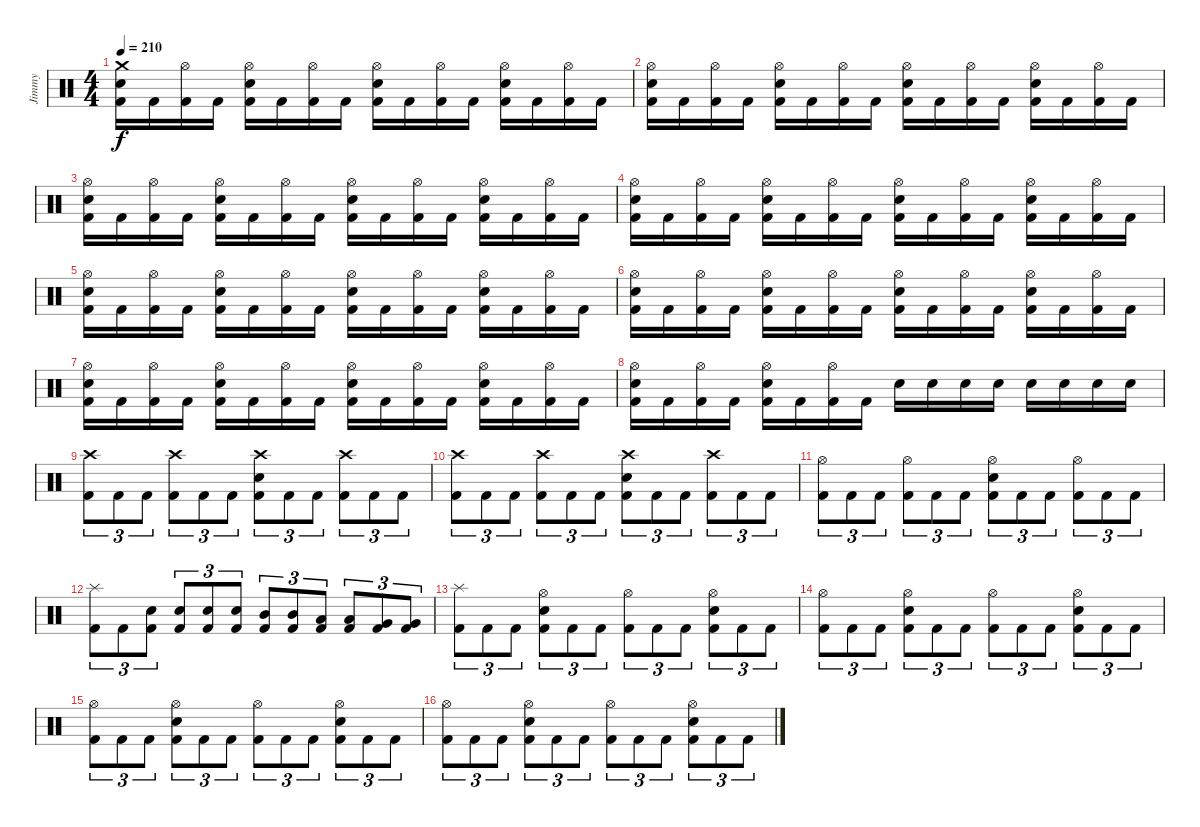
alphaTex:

\track ("Jimmy" "Jimmy") {instrument percussion}
\staff {score}
\articulation defaults
\ts (4 4)
\tempo 210
\clef neutral
\ks c
("Crash medium (hit)" "Electric Snare (hit)" "Kick (hit) 2").16{dy f} "Kick (hit) 2".16 ("Hi-Hat (open)" "Kick (hit) 2").16 "Kick (hit) 2".16 ("Hi-Hat (open)" "Electric Snare (hit)" "Kick (hit) 2").16 "Kick (hit) 2".16 ("Hi-Hat (open)" "Kick (hit) 2").16 "Kick (hit) 2".16 ("Hi-Hat (open)" "Electric Snare (hit)" "Kick (hit) 2").16 "Kick (hit) 2".16 ("Hi-Hat (open)" "Kick (hit) 2").16 "Kick (hit) 2".16 ("Hi-Hat (open)" "Electric Snare (hit)" "Kick (hit) 2").16 "Kick (hit) 2".16 ("Hi-Hat (open)" "Kick (hit) 2").16 "Kick (hit) 2".16 |
("Hi-Hat (open)" "Electric Snare (hit)" "Kick (hit) 2").16 "Kick (hit) 2".16 ("Hi-Hat (open)" "Kick (hit) 2").16 "Kick (hit) 2".16 ("Hi-Hat (open)" "Electric Snare (hit)" "Kick (hit) 2").16 "Kick (hit) 2".16 ("Hi-Hat (open)" "Kick (hit) 2").16 "Kick (hit) 2".16 ("Hi-Hat (open)" "Electric Snare (hit)" "Kick (hit) 2").16 "Kick (hit) 2".16 ("Hi-Hat (open)" "Kick (hit) 2").16 "Kick (hit) 2".16 ("Hi-Hat (open)" "Electric Snare (hit)" "Kick (hit) 2").16 "Kick (hit) 2".16 ("Hi-Hat (open)" "Kick (hit) 2").16 "Kick (hit) 2".16 |
("Hi-Hat (open)" "Electric Snare (hit)" "Kick (hit) 2").16 "Kick (hit) 2".16 ("Hi-Hat (open)" "Kick (hit) 2").16 "Kick (hit) 2".16 ("Hi-Hat (open)" "Electric Snare (hit)" "Kick (hit) 2").16 "Kick (hit) 2".16 ("Hi-Hat (open)" "Kick (hit) 2").16 "Kick (hit) 2".16 ("Hi-Hat (open)" "Electric Snare (hit)" "Kick (hit) 2").16 "Kick (hit) 2".16 ("Hi-Hat (open)" "Kick (hit) 2").16 "Kick (hit) 2".16 ("Hi-Hat (open)" "Electric Snare (hit)" "Kick (hit) 2").16 "Kick (hit) 2".16 ("Hi-Hat (open)" "Kick (hit) 2").16 "Kick (hit) 2".16 |
("Hi-Hat (open)" "Electric Snare (hit)" "Kick (hit) 2").16 "Kick (hit) 2".16 ("Hi-Hat (open)" "Kick (hit) 2").16 "Kick (hit) 2".16 ("Hi-Hat (open)" "Electric Snare (hit)" "Kick (hit) 2").16 "Kick (hit) 2".16 ("Hi-Hat (open)" "Kick (hit) 2").16 "Kick (hit) 2".16 ("Hi-Hat (open)" "Electric Snare (hit)" "Kick (hit) 2").16 "Kick (hit) 2".16 ("Hi-Hat (open)" "Kick (hit) 2").16 "Kick (hit) 2".16 ("Hi-Hat (open)" "Electric Snare (hit)" "Kick (hit) 2").16 "Kick (hit) 2".16 ("Hi-Hat (open)" "Kick (hit) 2").16 "Kick (hit) 2".16 |
("Hi-Hat (open)" "Electric Snare (hit)" "Kick (hit) 2").16 "Kick (hit) 2".16 ("Hi-Hat (open)" "Kick (hit) 2").16 "Kick (hit) 2".16 ("Hi-Hat (open)" "Electric Snare (hit)" "Kick (hit) 2").16 "Kick (hit) 2".16 ("Hi-Hat (open)" "Kick (hit) 2").16 "Kick (hit) 2".16 ("Hi-Hat (open)" "Electric Snare (hit)" "Kick (hit) 2").16 "Kick (hit) 2".16 ("Hi-Hat (open)" "Kick (hit) 2").16 "Kick (hit) 2".16 ("Hi-Hat (open)" "Electric Snare (hit)" "Kick (hit) 2").16 "Kick (hit) 2".16 ("Hi-Hat (open)" "Kick (hit) 2").16 "Kick (hit) 2".16 |
("Hi-Hat (open)" "Electric Snare (hit)" "Kick (hit) 2").16 "Kick (hit) 2".16 ("Hi-Hat (open)" "Kick (hit) 2").16 "Kick (hit) 2".16 ("Hi-Hat (open)" "Electric Snare (hit)" "Kick (hit) 2").16 "Kick (hit) 2".16 ("Hi-Hat (open)" "Kick (hit) 2").16 "Kick (hit) 2".16 ("Hi-Hat (open)" "Electric Snare (hit)" "Kick (hit) 2").16 "Kick (hit) 2".16 ("Hi-Hat (open)" "Kick (hit) 2").16 "Kick (hit) 2".16 ("Hi-Hat (open)" "Electric Snare (hit)" "Kick (hit) 2").16 "Kick (hit) 2".16 ("Hi-Hat (open)" "Kick (hit) 2").16 "Kick (hit) 2".16 |
("Hi-Hat (open)" "Electric Snare (hit)" "Kick (hit) 2").16 "Kick (hit) 2".16 ("Hi-Hat (open)" "Kick (hit) 2").16 "Kick (hit) 2".16 ("Hi-Hat (open)" "Electric Snare (hit)" "Kick (hit) 2").16 "Kick (hit) 2".16 ("Hi-Hat (open)" "Kick (hit) 2").16 "Kick (hit) 2".16 ("Hi-Hat (open)" "Electric Snare (hit)" "Kick (hit) 2").16 "Kick (hit) 2".16 ("Hi-Hat (open)" "Kick (hit) 2").16 "Kick (hit) 2".16 ("Hi-Hat (open)" "Electric Snare (hit)" "Kick (hit) 2").16 "Kick (hit) 2".16 ("Hi-Hat (open)" "Kick (hit) 2").16 "Kick (hit) 2".16 |
("Hi-Hat (open)" "Electric Snare (hit)" "Kick (hit) 2").16 "Kick (hit) 2".16 ("Hi-Hat (open)" "Kick (hit) 2").16 "Kick (hit) 2".16 ("Hi-Hat (open)" "Electric Snare (hit)" "Kick (hit) 2").16 "Kick (hit) 2".16 ("Hi-Hat (open)" "Kick (hit) 2").16 "Kick (hit) 2".16 "Electric Snare (hit)".16 "Electric Snare (hit)".16 "Electric Snare (hit)".16 "Electric Snare (hit)".16 "Electric Snare (hit)".16 "Electric Snare (hit)".16 "Electric Snare (hit)".16 "Electric Snare (hit)".16 |
("Crash high (hit)" "Kick (hit) 2").8{tu (3 2)} "Kick (hit) 2".8{tu (3 2)} "Kick (hit) 2".8{tu (3 2)} ("Crash high (hit)" "Kick (hit) 2").8{tu (3 2)} "Kick (hit) 2".8{tu (3 2)} "Kick (hit) 2".8{tu (3 2)} ("Crash high (hit)" "Electric Snare (hit)" "Kick (hit) 2").8{tu (3 2)} "Kick (hit) 2".8{tu (3 2)} "Kick (hit) 2".8{tu (3 2)} ("Crash high (hit)" "Kick (hit) 2").8{tu (3 2)} "Kick (hit) 2".8{tu (3 2)} "Kick (hit) 2".8{tu (3 2)} |
("Crash high (hit)" "Kick (hit) 2").8{tu (3 2)} "Kick (hit) 2".8{tu (3 2)} "Kick (hit) 2".8{tu (3 2)} ("Crash high (hit)" "Kick (hit) 2").8{tu (3 2)} "Kick (hit) 2".8{tu (3 2)} "Kick (hit) 2".8{tu (3 2)} ("Crash high (hit)" "Electric Snare (hit)" "Kick (hit) 2").8{tu (3 2)} "Kick (hit) 2".8{tu (3 2)} "Kick (hit) 2".8{tu (3 2)} ("Crash high (hit)" "Kick (hit) 2").8{tu (3 2)} "Kick (hit) 2".8{tu (3 2)} "Kick (hit) 2".8{tu (3 2)} |
("Hi-Hat (open)" "Kick (hit) 2").8{tu (3 2)} "Kick (hit) 2".8{tu (3 2)} "Kick (hit) 2".8{tu (3 2)} ("Hi-Hat (open)" "Kick (hit) 2").8{tu (3 2)} "Kick (hit) 2".8{tu (3 2)} "Kick (hit) 2".8{tu (3 2)} ("Hi-Hat (open)" "Electric Snare (hit)" "Kick (hit) 2").8{tu (3 2)} "Kick (hit) 2".8{tu (3 2)} "Kick (hit) 2".8{tu (3 2)} ("Hi-Hat (open)" "Kick (hit) 2").8{tu (3 2)} "Kick (hit) 2".8{tu (3 2)} "Kick (hit) 2".8{tu (3 2)} |
("Splash (hit)" "Kick (hit) 2").8{tu (3 2)} "Kick (hit) 2".8{tu (3 2)} ("Electric Snare (hit)" "Kick (hit) 2").8{tu (3 2)} ("Electric Snare (hit)" "Kick (hit) 2").8{tu (3 2)} ("Electric Snare (hit)" "Kick (hit) 2").8{tu (3 2)} ("Electric Snare (hit)" "Kick (hit) 2").8{tu (3 2)} ("Mid Tom (hit)" "Kick (hit) 2").8{tu (3 2)} ("Mid Tom (hit)" "Kick (hit) 2").8{tu (3 2)} ("Low Tom (hit)" "Kick (hit) 2").8{tu (3 2)} ("Low Tom (hit)" "Kick (hit) 2").8{tu (3 2)} ("Very Low Tom (hit)" "Kick (hit) 2").8{tu (3 2)} ("Very Low Tom (hit)" "Kick (hit) 2").8{tu (3 2)} |
("Splash (hit)" "Kick (hit) 2").8{tu (3 2)} "Kick (hit) 2".8{tu (3 2)} "Kick (hit) 2".8{tu (3 2)} ("Hi-Hat (open)" "Electric Snare (hit)" "Kick (hit) 2").8{tu (3 2)} "Kick (hit) 2".8{tu (3 2)} "Kick (hit) 2".8{tu (3 2)} ("Hi-Hat (open)" "Kick (hit) 2").8{tu (3 2)} "Kick (hit) 2".8{tu (3 2)} "Kick (hit) 2".8{tu (3 2)} ("Hi-Hat (open)" "Electric Snare (hit)" "Kick (hit) 2").8{tu (3 2)} "Kick (hit) 2".8{tu (3 2)} "Kick (hit) 2".8{tu (3 2)} |
("Hi-Hat (open)" "Kick (hit) 2").8{tu (3 2)} "Kick (hit) 2".8{tu (3 2)} "Kick (hit) 2".8{tu (3 2)} ("Hi-Hat (open)" "Electric Snare (hit)" "Kick (hit) 2").8{tu (3 2)} "Kick (hit) 2".8{tu (3 2)} "Kick (hit) 2".8{tu (3 2)} ("Hi-Hat (open)" "Kick (hit) 2").8{tu (3 2)} "Kick (hit) 2".8{tu (3 2)} "Kick (hit) 2".8{tu (3 2)} ("Hi-Hat (open)" "Electric Snare (hit)" "Kick (hit) 2").8{tu (3 2)} "Kick (hit) 2".8{tu (3 2)} "Kick (hit) 2".8{tu (3 2)} |
("Hi-Hat (open)" "Kick (hit) 2").8{tu (3 2)} "Kick (hit) 2".8{tu (3 2)} "Kick (hit) 2".8{tu (3 2)} ("Hi-Hat (open)" "Electric Snare (hit)" "Kick (hit) 2").8{tu (3 2)} "Kick (hit) 2".8{tu (3 2)} "Kick (hit) 2".8{tu (3 2)} ("Hi-Hat (open)" "Kick (hit) 2").8{tu (3 2)} "Kick (hit) 2".8{tu (3 2)} "Kick (hit) 2".8{tu (3 2)} ("Hi-Hat (open)" "Electric Snare (hit)" "Kick (hit) 2").8{tu (3 2)} "Kick (hit) 2".8{tu (3 2)} "Kick (hit) 2".8{tu (3 2)} |
("Hi-Hat (open)" "Kick (hit) 2").8{tu (3 2)} "Kick (hit) 2".8{tu (3 2)} "Kick (hit) 2".8{tu (3 2)} ("Hi-Hat (open)" "Electric Snare (hit)" "Kick (hit) 2").8{tu (3 2)} "Kick (hit) 2".8{tu (3 2)} "Kick (hit) 2".8{tu (3 2)} ("Hi-Hat (open)" "Kick (hit) 2").8{tu (3 2)} "Kick (hit) 2".8{tu (3 2)} "Kick (hit) 2".8{tu (3 2)} ("Hi-Hat (open)" "Electric Snare (hit)" "Kick (hit) 2").8{tu (3 2)} "Kick (hit) 2".8{tu (3 2)} "Kick (hit) 2".8{tu (3 2)}
